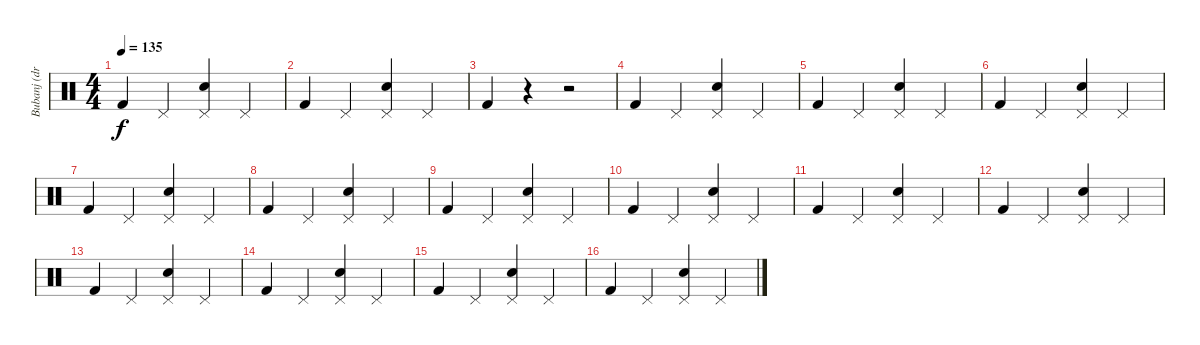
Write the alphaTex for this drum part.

\track ("Bubanj (drums)" "Bubanj (dr") {instrument percussion}
\staff {score}
\articulation defaults
\ts (4 4)
\tempo 135
\clef neutral
\ks c "Kick (hit) 2".4{dy f} "Pedal Hi-Hat (hit)".4
("Pedal Hi-Hat (hit)" "Snare (hit) 2").4 "Pedal Hi-Hat (hit)".4 |
"Kick (hit) 2".4 "Pedal Hi-Hat (hit)".4 ("Pedal Hi-Hat (hit)" "Snare (hit) 2").4 "Pedal Hi-Hat (hit)".4 |
"Kick (hit) 2".4 r.4 r.2 |
"Kick (hit) 2".4 "Pedal Hi-Hat (hit)".4 ("Pedal Hi-Hat (hit)" "Snare (hit) 2").4 "Pedal Hi-Hat (hit)".4 |
"Kick (hit) 2".4 "Pedal Hi-Hat (hit)".4 ("Pedal Hi-Hat (hit)" "Snare (hit) 2").4 "Pedal Hi-Hat (hit)".4 |
"Kick (hit) 2".4 "Pedal Hi-Hat (hit)".4 ("Pedal Hi-Hat (hit)" "Snare (hit) 2").4 "Pedal Hi-Hat (hit)".4 |
"Kick (hit) 2".4 "Pedal Hi-Hat (hit)".4 ("Pedal Hi-Hat (hit)" "Snare (hit) 2").4 "Pedal Hi-Hat (hit)".4 |
"Kick (hit) 2".4 "Pedal Hi-Hat (hit)".4 ("Pedal Hi-Hat (hit)" "Snare (hit) 2").4 "Pedal Hi-Hat (hit)".4 |
"Kick (hit) 2".4 "Pedal Hi-Hat (hit)".4 ("Pedal Hi-Hat (hit)" "Snare (hit) 2").4 "Pedal Hi-Hat (hit)".4 |
"Kick (hit) 2".4 "Pedal Hi-Hat (hit)".4 ("Pedal Hi-Hat (hit)" "Snare (hit) 2").4 "Pedal Hi-Hat (hit)".4 |
"Kick (hit) 2".4 "Pedal Hi-Hat (hit)".4 ("Pedal Hi-Hat (hit)" "Snare (hit) 2").4 "Pedal Hi-Hat (hit)".4 |
"Kick (hit) 2".4 "Pedal Hi-Hat (hit)".4 ("Pedal Hi-Hat (hit)" "Snare (hit) 2").4 "Pedal Hi-Hat (hit)".4 |
"Kick (hit) 2".4 "Pedal Hi-Hat (hit)".4 ("Pedal Hi-Hat (hit)" "Snare (hit) 2").4 "Pedal Hi-Hat (hit)".4 |
"Kick (hit) 2".4 "Pedal Hi-Hat (hit)".4 ("Pedal Hi-Hat (hit)" "Snare (hit) 2").4 "Pedal Hi-Hat (hit)".4 |
"Kick (hit) 2".4 "Pedal Hi-Hat (hit)".4 ("Pedal Hi-Hat (hit)" "Snare (hit) 2").4 "Pedal Hi-Hat (hit)".4 |
"Kick (hit) 2".4 "Pedal Hi-Hat (hit)".4 ("Pedal Hi-Hat (hit)" "Snare (hit) 2").4 "Pedal Hi-Hat (hit)".4
